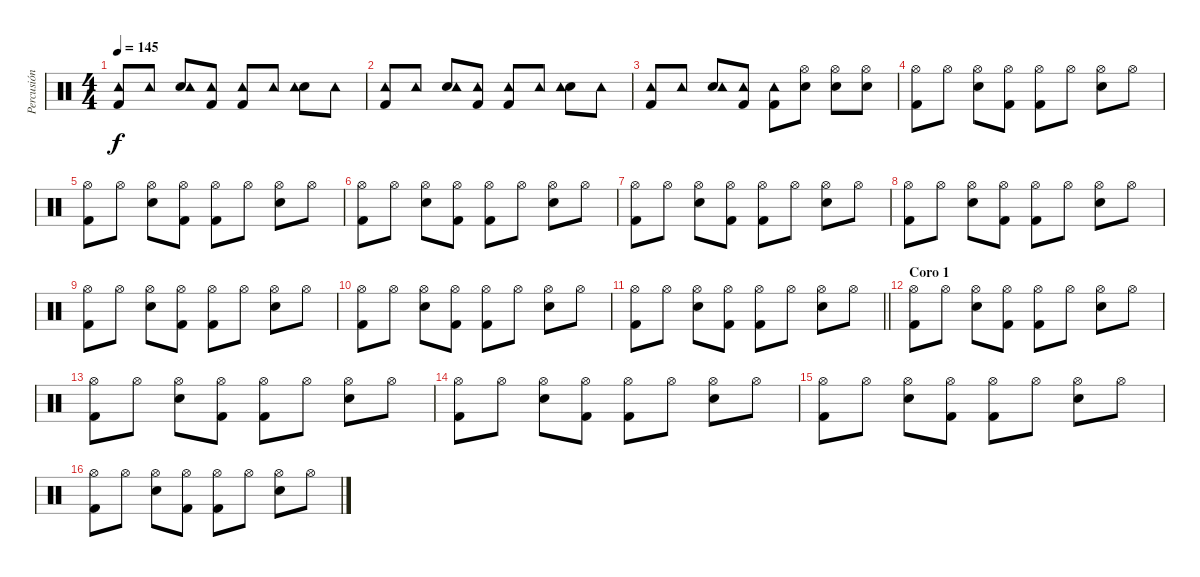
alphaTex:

\track ("Percusión" "Percusión") {instrument percussion}
\staff {score}
\articulation defaults
\ts (4 4)
\tempo 145
\clef neutral
\ks c
("Kick (hit) 2" "Tambourine (hit)").8{dy f} "Tambourine (hit)".8 ("Electric Snare (hit)" "Tambourine (hit)").8 ("Kick (hit) 2" "Tambourine (hit)").8 ("Kick (hit) 2" "Tambourine (hit)").8 "Tambourine (hit)".8 ("Electric Snare (hit)" "Tambourine (hit)").8 "Tambourine (hit)".8 |
("Kick (hit) 2" "Tambourine (hit)").8 "Tambourine (hit)".8 ("Electric Snare (hit)" "Tambourine (hit)").8 ("Kick (hit) 2" "Tambourine (hit)").8 ("Kick (hit) 2" "Tambourine (hit)").8 "Tambourine (hit)".8 ("Electric Snare (hit)" "Tambourine (hit)").8 "Tambourine (hit)".8 |
("Kick (hit) 2" "Tambourine (hit)").8 "Tambourine (hit)".8 ("Electric Snare (hit)" "Tambourine (hit)").8 ("Kick (hit) 2" "Tambourine (hit)").8 ("Kick (hit) 2" "Tambourine (hit)").8 ("Electric Snare (hit)" "Hi-Hat (open)").8 ("Electric Snare (hit)" "Hi-Hat (open)").8 ("Electric Snare (hit)" "Hi-Hat (open)").8 |
("Kick (hit) 2" "Hi-Hat (open)").8 "Hi-Hat (open)".8 ("Electric Snare (hit)" "Hi-Hat (open)").8 ("Kick (hit) 2" "Hi-Hat (open)").8 ("Kick (hit) 2" "Hi-Hat (open)").8 "Hi-Hat (open)".8 ("Electric Snare (hit)" "Hi-Hat (open)").8 "Hi-Hat (open)".8 |
("Kick (hit) 2" "Hi-Hat (open)").8 "Hi-Hat (open)".8 ("Electric Snare (hit)" "Hi-Hat (open)").8 ("Kick (hit) 2" "Hi-Hat (open)").8 ("Kick (hit) 2" "Hi-Hat (open)").8 "Hi-Hat (open)".8 ("Electric Snare (hit)" "Hi-Hat (open)").8 "Hi-Hat (open)".8 |
("Kick (hit) 2" "Hi-Hat (open)").8 "Hi-Hat (open)".8 ("Electric Snare (hit)" "Hi-Hat (open)").8 ("Kick (hit) 2" "Hi-Hat (open)").8 ("Kick (hit) 2" "Hi-Hat (open)").8 "Hi-Hat (open)".8 ("Electric Snare (hit)" "Hi-Hat (open)").8 "Hi-Hat (open)".8 |
("Kick (hit) 2" "Hi-Hat (open)").8 "Hi-Hat (open)".8 ("Electric Snare (hit)" "Hi-Hat (open)").8 ("Kick (hit) 2" "Hi-Hat (open)").8 ("Kick (hit) 2" "Hi-Hat (open)").8 "Hi-Hat (open)".8 ("Electric Snare (hit)" "Hi-Hat (open)").8 "Hi-Hat (open)".8 |
("Kick (hit) 2" "Hi-Hat (open)").8 "Hi-Hat (open)".8 ("Electric Snare (hit)" "Hi-Hat (open)").8 ("Kick (hit) 2" "Hi-Hat (open)").8 ("Kick (hit) 2" "Hi-Hat (open)").8 "Hi-Hat (open)".8 ("Electric Snare (hit)" "Hi-Hat (open)").8 "Hi-Hat (open)".8 |
("Kick (hit) 2" "Hi-Hat (open)").8 "Hi-Hat (open)".8 ("Electric Snare (hit)" "Hi-Hat (open)").8 ("Kick (hit) 2" "Hi-Hat (open)").8 ("Kick (hit) 2" "Hi-Hat (open)").8 "Hi-Hat (open)".8 ("Electric Snare (hit)" "Hi-Hat (open)").8 "Hi-Hat (open)".8 |
("Kick (hit) 2" "Hi-Hat (open)").8 "Hi-Hat (open)".8 ("Electric Snare (hit)" "Hi-Hat (open)").8 ("Kick (hit) 2" "Hi-Hat (open)").8 ("Kick (hit) 2" "Hi-Hat (open)").8 "Hi-Hat (open)".8 ("Electric Snare (hit)" "Hi-Hat (open)").8 "Hi-Hat (open)".8 |
\barLineRight lightlight
("Kick (hit) 2" "Hi-Hat (open)").8 "Hi-Hat (open)".8 ("Electric Snare (hit)" "Hi-Hat (open)").8 ("Kick (hit) 2" "Hi-Hat (open)").8 ("Kick (hit) 2" "Hi-Hat (open)").8 "Hi-Hat (open)".8 ("Electric Snare (hit)" "Hi-Hat (open)").8 "Hi-Hat (open)".8 |
\section ("" "Coro 1")
("Kick (hit) 2" "Hi-Hat (open)").8 "Hi-Hat (open)".8 ("Electric Snare (hit)" "Hi-Hat (open)").8 ("Kick (hit) 2" "Hi-Hat (open)").8 ("Kick (hit) 2" "Hi-Hat (open)").8 "Hi-Hat (open)".8 ("Electric Snare (hit)" "Hi-Hat (open)").8 "Hi-Hat (open)".8 |
("Kick (hit) 2" "Hi-Hat (open)").8 "Hi-Hat (open)".8 ("Electric Snare (hit)" "Hi-Hat (open)").8 ("Kick (hit) 2" "Hi-Hat (open)").8 ("Kick (hit) 2" "Hi-Hat (open)").8 "Hi-Hat (open)".8 ("Electric Snare (hit)" "Hi-Hat (open)").8 "Hi-Hat (open)".8 |
("Kick (hit) 2" "Hi-Hat (open)").8 "Hi-Hat (open)".8 ("Electric Snare (hit)" "Hi-Hat (open)").8 ("Kick (hit) 2" "Hi-Hat (open)").8 ("Kick (hit) 2" "Hi-Hat (open)").8 "Hi-Hat (open)".8 ("Electric Snare (hit)" "Hi-Hat (open)").8 "Hi-Hat (open)".8 |
("Kick (hit) 2" "Hi-Hat (open)").8 "Hi-Hat (open)".8 ("Electric Snare (hit)" "Hi-Hat (open)").8 ("Kick (hit) 2" "Hi-Hat (open)").8 ("Kick (hit) 2" "Hi-Hat (open)").8 "Hi-Hat (open)".8 ("Electric Snare (hit)" "Hi-Hat (open)").8 "Hi-Hat (open)".8 |
("Kick (hit) 2" "Hi-Hat (open)").8 "Hi-Hat (open)".8 ("Electric Snare (hit)" "Hi-Hat (open)").8 ("Kick (hit) 2" "Hi-Hat (open)").8 ("Kick (hit) 2" "Hi-Hat (open)").8 "Hi-Hat (open)".8 ("Electric Snare (hit)" "Hi-Hat (open)").8 "Hi-Hat (open)".8
